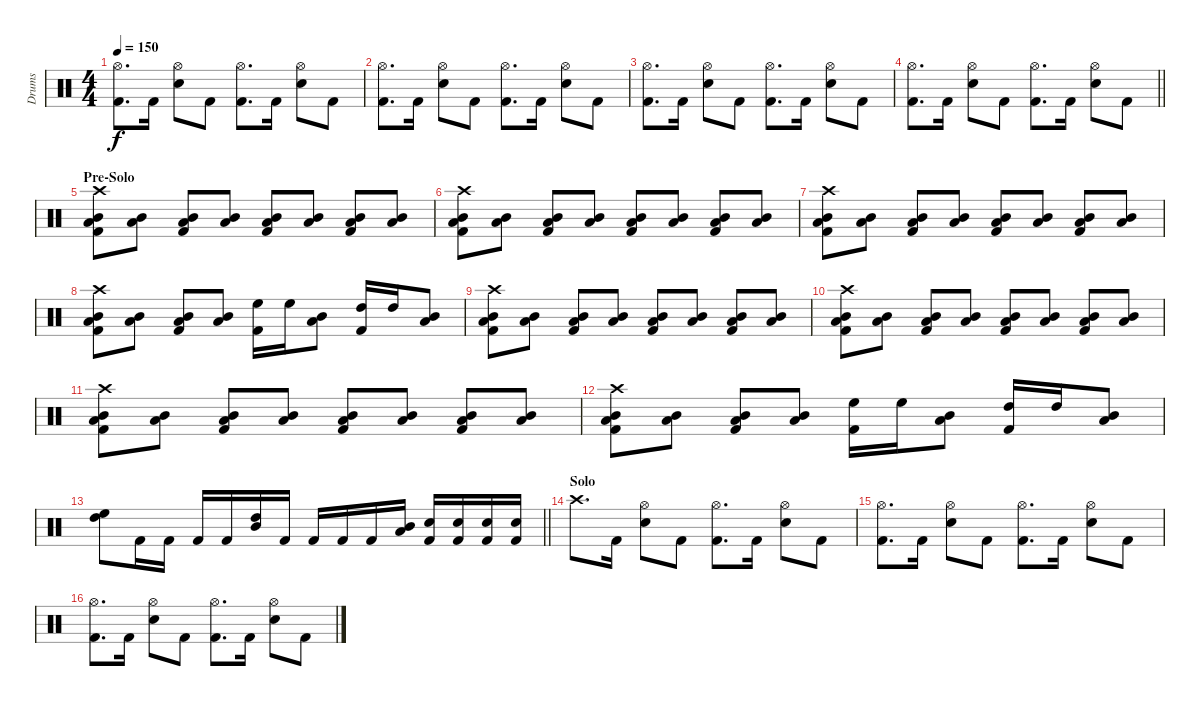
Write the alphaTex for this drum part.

\track ("Drums" "Drums") {instrument percussion}
\staff {score}
\articulation defaults
\ts (4 4)
\tempo 150
\clef neutral
\ks c
("Kick (hit) 2" "Hi-Hat (open)").8{d dy f} "Kick (hit) 2".16 ("Snare (hit) 2" "Hi-Hat (open)").8 "Kick (hit) 2".8 ("Kick (hit) 2" "Hi-Hat (open)").8{d} "Kick (hit) 2".16 ("Snare (hit) 2" "Hi-Hat (open)").8 "Kick (hit) 2".8 |
("Kick (hit) 2" "Hi-Hat (open)").8{d} "Kick (hit) 2".16 ("Snare (hit) 2" "Hi-Hat (open)").8 "Kick (hit) 2".8 ("Kick (hit) 2" "Hi-Hat (open)").8{d} "Kick (hit) 2".16 ("Snare (hit) 2" "Hi-Hat (open)").8 "Kick (hit) 2".8 |
("Kick (hit) 2" "Hi-Hat (open)").8{d} "Kick (hit) 2".16 ("Snare (hit) 2" "Hi-Hat (open)").8 "Kick (hit) 2".8 ("Kick (hit) 2" "Hi-Hat (open)").8{d} "Kick (hit) 2".16 ("Snare (hit) 2" "Hi-Hat (open)").8 "Kick (hit) 2".8 |
\barLineRight lightlight
("Kick (hit) 2" "Hi-Hat (open)").8{d} "Kick (hit) 2".16 ("Snare (hit) 2" "Hi-Hat (open)").8 "Kick (hit) 2".8 ("Kick (hit) 2" "Hi-Hat (open)").8{d} "Kick (hit) 2".16 ("Snare (hit) 2" "Hi-Hat (open)").8 "Kick (hit) 2".8 |
\section ("" "Pre-Solo")
("Kick (hit) 2" "Low Tom (hit)" "Mid Tom (hit)" "Crash high (hit)").8 ("Low Tom (hit)" "Mid Tom (hit)").8 ("Kick (hit) 2" "Low Tom (hit)" "Mid Tom (hit)").8 ("Low Tom (hit)" "Mid Tom (hit)").8 ("Kick (hit) 2" "Low Tom (hit)" "Mid Tom (hit)").8 ("Low Tom (hit)" "Mid Tom (hit)").8 ("Kick (hit) 2" "Low Tom (hit)" "Mid Tom (hit)").8 ("Low Tom (hit)" "Mid Tom (hit)").8 |
("Kick (hit) 2" "Low Tom (hit)" "Mid Tom (hit)" "Crash high (hit)").8 ("Low Tom (hit)" "Mid Tom (hit)").8 ("Kick (hit) 2" "Low Tom (hit)" "Mid Tom (hit)").8 ("Low Tom (hit)" "Mid Tom (hit)").8 ("Kick (hit) 2" "Low Tom (hit)" "Mid Tom (hit)").8 ("Low Tom (hit)" "Mid Tom (hit)").8 ("Kick (hit) 2" "Low Tom (hit)" "Mid Tom (hit)").8 ("Low Tom (hit)" "Mid Tom (hit)").8 |
("Kick (hit) 2" "Low Tom (hit)" "Mid Tom (hit)" "Crash high (hit)").8 ("Low Tom (hit)" "Mid Tom (hit)").8 ("Kick (hit) 2" "Low Tom (hit)" "Mid Tom (hit)").8 ("Low Tom (hit)" "Mid Tom (hit)").8 ("Kick (hit) 2" "Low Tom (hit)" "Mid Tom (hit)").8 ("Low Tom (hit)" "Mid Tom (hit)").8 ("Kick (hit) 2" "Low Tom (hit)" "Mid Tom (hit)").8 ("Low Tom (hit)" "Mid Tom (hit)").8 |
("Kick (hit) 2" "Low Tom (hit)" "Mid Tom (hit)" "Crash high (hit)").8 ("Low Tom (hit)" "Mid Tom (hit)").8 ("Kick (hit) 2" "Low Tom (hit)" "Mid Tom (hit)").8 ("Low Tom (hit)" "Mid Tom (hit)").8 ("Kick (hit) 2" "High Floor Tom (hit)").16 "High Floor Tom (hit)".16 ("Low Tom (hit)" "Mid Tom (hit)").8 ("Kick (hit) 2" "High Tom (hit)").16 "High Tom (hit)".16 ("Low Tom (hit)" "Mid Tom (hit)").8 |
("Kick (hit) 2" "Low Tom (hit)" "Mid Tom (hit)" "Crash high (hit)").8 ("Low Tom (hit)" "Mid Tom (hit)").8 ("Kick (hit) 2" "Low Tom (hit)" "Mid Tom (hit)").8 ("Low Tom (hit)" "Mid Tom (hit)").8 ("Kick (hit) 2" "Low Tom (hit)" "Mid Tom (hit)").8 ("Low Tom (hit)" "Mid Tom (hit)").8 ("Kick (hit) 2" "Low Tom (hit)" "Mid Tom (hit)").8 ("Low Tom (hit)" "Mid Tom (hit)").8 |
("Kick (hit) 2" "Low Tom (hit)" "Mid Tom (hit)" "Crash high (hit)").8 ("Low Tom (hit)" "Mid Tom (hit)").8 ("Kick (hit) 2" "Low Tom (hit)" "Mid Tom (hit)").8 ("Low Tom (hit)" "Mid Tom (hit)").8 ("Kick (hit) 2" "Low Tom (hit)" "Mid Tom (hit)").8 ("Low Tom (hit)" "Mid Tom (hit)").8 ("Kick (hit) 2" "Low Tom (hit)" "Mid Tom (hit)").8 ("Low Tom (hit)" "Mid Tom (hit)").8 |
("Kick (hit) 2" "Low Tom (hit)" "Mid Tom (hit)" "Crash high (hit)").8 ("Low Tom (hit)" "Mid Tom (hit)").8 ("Kick (hit) 2" "Low Tom (hit)" "Mid Tom (hit)").8 ("Low Tom (hit)" "Mid Tom (hit)").8 ("Kick (hit) 2" "Low Tom (hit)" "Mid Tom (hit)").8 ("Low Tom (hit)" "Mid Tom (hit)").8 ("Kick (hit) 2" "Low Tom (hit)" "Mid Tom (hit)").8 ("Low Tom (hit)" "Mid Tom (hit)").8 |
("Kick (hit) 2" "Low Tom (hit)" "Mid Tom (hit)" "Crash high (hit)").8 ("Low Tom (hit)" "Mid Tom (hit)").8 ("Kick (hit) 2" "Low Tom (hit)" "Mid Tom (hit)").8 ("Low Tom (hit)" "Mid Tom (hit)").8 ("Kick (hit) 2" "High Floor Tom (hit)").16 "High Floor Tom (hit)".16 ("Low Tom (hit)" "Mid Tom (hit)").8 ("Kick (hit) 2" "High Tom (hit)").16 "High Tom (hit)".16 ("Low Tom (hit)" "Mid Tom (hit)").8 |
\barLineRight lightlight
("High Floor Tom (hit)" "High Tom (hit)").8 "Kick (hit) 2".16 "Kick (hit) 2".16 "Kick (hit) 2".16 "Kick (hit) 2".16 ("High Tom (hit)" "Mid Tom (hit)").16 "Kick (hit) 2".16 "Kick (hit) 2".16 "Kick (hit) 2".16 "Kick (hit) 2".16 ("Mid Tom (hit)" "Low Tom (hit)").16 ("Kick (hit) 2" "Snare (hit) 2").16 ("Kick (hit) 2" "Snare (hit) 2").16 ("Kick (hit) 2" "Snare (hit) 2").16 ("Kick (hit) 2" "Snare (hit) 2").16 |
\section ("" "Solo")
"Crash high (hit)".8{d} "Kick (hit) 2".16 ("Snare (hit) 2" "Hi-Hat (open)").8 "Kick (hit) 2".8 ("Kick (hit) 2" "Hi-Hat (open)").8{d} "Kick (hit) 2".16 ("Snare (hit) 2" "Hi-Hat (open)").8 "Kick (hit) 2".8 |
("Kick (hit) 2" "Hi-Hat (open)").8{d} "Kick (hit) 2".16 ("Snare (hit) 2" "Hi-Hat (open)").8 "Kick (hit) 2".8 ("Kick (hit) 2" "Hi-Hat (open)").8{d} "Kick (hit) 2".16 ("Snare (hit) 2" "Hi-Hat (open)").8 "Kick (hit) 2".8 |
("Kick (hit) 2" "Hi-Hat (open)").8{d} "Kick (hit) 2".16 ("Snare (hit) 2" "Hi-Hat (open)").8 "Kick (hit) 2".8 ("Kick (hit) 2" "Hi-Hat (open)").8{d} "Kick (hit) 2".16 ("Snare (hit) 2" "Hi-Hat (open)").8 "Kick (hit) 2".8
